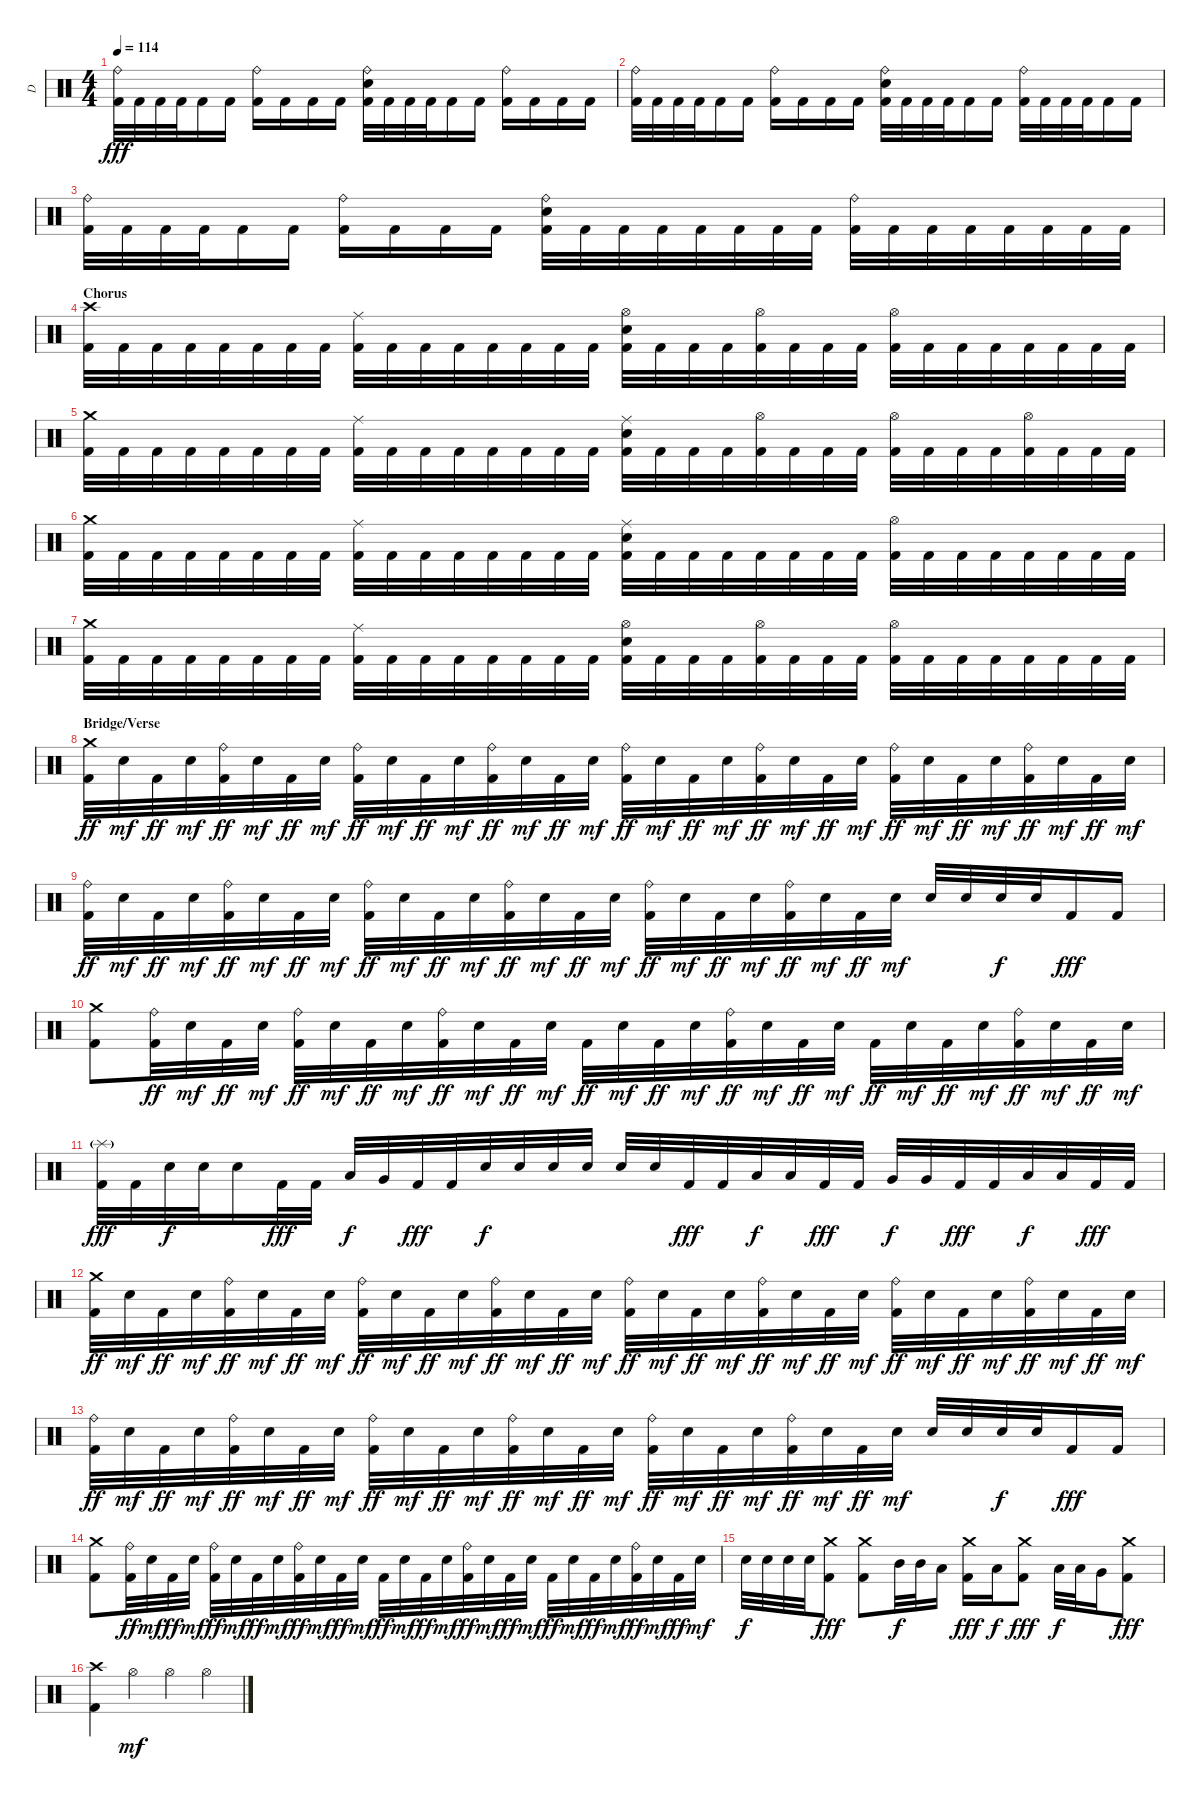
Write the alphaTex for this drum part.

\track ("D" "D") {instrument percussion}
\staff {score}
\articulation defaults
\ts (4 4)
\tempo 114
\clef neutral
\ks c
("Ride (bell)" "Kick (hit) 2").32{dy fff} "Kick (hit) 2".32 "Kick (hit) 2".32 "Kick (hit) 2".32 "Kick (hit) 2".16 "Kick (hit) 2".16 ("Ride (bell)" "Kick (hit) 2").16 "Kick (hit) 2".16 "Kick (hit) 2".16 "Kick (hit) 2".16 ("Ride (bell)" "Electric Snare (hit)" "Kick (hit) 2").32 "Kick (hit) 2".32 "Kick (hit) 2".32 "Kick (hit) 2".32 "Kick (hit) 2".16 "Kick (hit) 2".16 ("Ride (bell)" "Kick (hit) 2").16 "Kick (hit) 2".16 "Kick (hit) 2".16 "Kick (hit) 2".16 |
("Ride (bell)" "Kick (hit) 2").32 "Kick (hit) 2".32 "Kick (hit) 2".32 "Kick (hit) 2".32 "Kick (hit) 2".16 "Kick (hit) 2".16 ("Ride (bell)" "Kick (hit) 2").16 "Kick (hit) 2".16 "Kick (hit) 2".16 "Kick (hit) 2".16 ("Ride (bell)" "Electric Snare (hit)" "Kick (hit) 2").32 "Kick (hit) 2".32 "Kick (hit) 2".32 "Kick (hit) 2".32 "Kick (hit) 2".16 "Kick (hit) 2".16 ("Ride (bell)" "Kick (hit) 2").32 "Kick (hit) 2".32 "Kick (hit) 2".32 "Kick (hit) 2".32 "Kick (hit) 2".16 "Kick (hit) 2".16 |
("Ride (bell)" "Kick (hit) 2").32 "Kick (hit) 2".32 "Kick (hit) 2".32 "Kick (hit) 2".32 "Kick (hit) 2".16 "Kick (hit) 2".16 ("Ride (bell)" "Kick (hit) 2").16 "Kick (hit) 2".16 "Kick (hit) 2".16 "Kick (hit) 2".16 ("Ride (bell)" "Electric Snare (hit)" "Kick (hit) 2").32 "Kick (hit) 2".32 "Kick (hit) 2".32 "Kick (hit) 2".32 "Kick (hit) 2".32 "Kick (hit) 2".32 "Kick (hit) 2".32 "Kick (hit) 2".32 ("Ride (bell)" "Kick (hit) 2").32 "Kick (hit) 2".32 "Kick (hit) 2".32 "Kick (hit) 2".32 "Kick (hit) 2".32 "Kick (hit) 2".32 "Kick (hit) 2".32 "Kick (hit) 2".32 |
\section ("" "Chorus")
("Crash high (hit)" "Kick (hit) 2").32 "Kick (hit) 2".32 "Kick (hit) 2".32 "Kick (hit) 2".32 "Kick (hit) 2".32 "Kick (hit) 2".32 "Kick (hit) 2".32 "Kick (hit) 2".32 ("Ride (middle)" "Kick (hit) 2").32 "Kick (hit) 2".32 "Kick (hit) 2".32 "Kick (hit) 2".32 "Kick (hit) 2".32 "Kick (hit) 2".32 "Kick (hit) 2".32 "Kick (hit) 2".32 ("Hi-Hat (open)" "Electric Snare (hit)" "Kick (hit) 2").32 "Kick (hit) 2".32 "Kick (hit) 2".32 "Kick (hit) 2".32 ("Hi-Hat (open)" "Kick (hit) 2").32 "Kick (hit) 2".32 "Kick (hit) 2".32 "Kick (hit) 2".32 ("Hi-Hat (open)" "Kick (hit) 2").32 "Kick (hit) 2".32 "Kick (hit) 2".32 "Kick (hit) 2".32 "Kick (hit) 2".32 "Kick (hit) 2".32 "Kick (hit) 2".32 "Kick (hit) 2".32 |
("Crash medium (hit)" "Kick (hit) 2").32 "Kick (hit) 2".32 "Kick (hit) 2".32 "Kick (hit) 2".32 "Kick (hit) 2".32 "Kick (hit) 2".32 "Kick (hit) 2".32 "Kick (hit) 2".32 ("Ride (middle)" "Kick (hit) 2").32 "Kick (hit) 2".32 "Kick (hit) 2".32 "Kick (hit) 2".32 "Kick (hit) 2".32 "Kick (hit) 2".32 "Kick (hit) 2".32 "Kick (hit) 2".32 ("Ride (middle)" "Electric Snare (hit)" "Kick (hit) 2").32 "Kick (hit) 2".32 "Kick (hit) 2".32 "Kick (hit) 2".32 ("Hi-Hat (open)" "Kick (hit) 2").32 "Kick (hit) 2".32 "Kick (hit) 2".32 "Kick (hit) 2".32 ("Hi-Hat (open)" "Kick (hit) 2").32 "Kick (hit) 2".32 "Kick (hit) 2".32 "Kick (hit) 2".32 ("Hi-Hat (open)" "Kick (hit) 2").32 "Kick (hit) 2".32 "Kick (hit) 2".32 "Kick (hit) 2".32 |
("Crash medium (hit)" "Kick (hit) 2").32 "Kick (hit) 2".32 "Kick (hit) 2".32 "Kick (hit) 2".32 "Kick (hit) 2".32 "Kick (hit) 2".32 "Kick (hit) 2".32 "Kick (hit) 2".32 ("Ride (middle)" "Kick (hit) 2").32 "Kick (hit) 2".32 "Kick (hit) 2".32 "Kick (hit) 2".32 "Kick (hit) 2".32 "Kick (hit) 2".32 "Kick (hit) 2".32 "Kick (hit) 2".32 ("Ride (middle)" "Electric Snare (hit)" "Kick (hit) 2").32 "Kick (hit) 2".32 "Kick (hit) 2".32 "Kick (hit) 2".32 "Kick (hit) 2".32 "Kick (hit) 2".32 "Kick (hit) 2".32 "Kick (hit) 2".32 ("Hi-Hat (open)" "Kick (hit) 2").32 "Kick (hit) 2".32 "Kick (hit) 2".32 "Kick (hit) 2".32 "Kick (hit) 2".32 "Kick (hit) 2".32 "Kick (hit) 2".32 "Kick (hit) 2".32 |
("Crash medium (hit)" "Kick (hit) 2").32 "Kick (hit) 2".32 "Kick (hit) 2".32 "Kick (hit) 2".32 "Kick (hit) 2".32 "Kick (hit) 2".32 "Kick (hit) 2".32 "Kick (hit) 2".32 ("Ride (middle)" "Kick (hit) 2").32 "Kick (hit) 2".32 "Kick (hit) 2".32 "Kick (hit) 2".32 "Kick (hit) 2".32 "Kick (hit) 2".32 "Kick (hit) 2".32 "Kick (hit) 2".32 ("Hi-Hat (open)" "Electric Snare (hit)" "Kick (hit) 2").32 "Kick (hit) 2".32 "Kick (hit) 2".32 "Kick (hit) 2".32 ("Hi-Hat (open)" "Kick (hit) 2").32 "Kick (hit) 2".32 "Kick (hit) 2".32 "Kick (hit) 2".32 ("Hi-Hat (open)" "Kick (hit) 2").32 "Kick (hit) 2".32 "Kick (hit) 2".32 "Kick (hit) 2".32 "Kick (hit) 2".32 "Kick (hit) 2".32 "Kick (hit) 2".32 "Kick (hit) 2".32 |
\section ("" "Bridge/Verse")
("Crash medium (hit)" "Kick (hit) 2").32{dy ff} "Electric Snare (hit)".32{dy mf} "Kick (hit) 2".32{dy ff} "Electric Snare (hit)".32{dy mf} ("Ride (bell)" "Kick (hit) 2").32{dy ff} "Electric Snare (hit)".32{dy mf} "Kick (hit) 2".32{dy ff} "Electric Snare (hit)".32{dy mf} ("Ride (bell)" "Kick (hit) 2").32{dy ff} "Electric Snare (hit)".32{dy mf} "Kick (hit) 2".32{dy ff} "Electric Snare (hit)".32{dy mf} ("Ride (bell)" "Kick (hit) 2").32{dy ff} "Electric Snare (hit)".32{dy mf} "Kick (hit) 2".32{dy ff} "Electric Snare (hit)".32{dy mf} ("Ride (bell)" "Kick (hit) 2").32{dy ff} "Electric Snare (hit)".32{dy mf} "Kick (hit) 2".32{dy ff} "Electric Snare (hit)".32{dy mf} ("Ride (bell)" "Kick (hit) 2").32{dy ff} "Electric Snare (hit)".32{dy mf} "Kick (hit) 2".32{dy ff} "Electric Snare (hit)".32{dy mf} ("Ride (bell)" "Kick (hit) 2").32{dy ff} "Electric Snare (hit)".32{dy mf} "Kick (hit) 2".32{dy ff} "Electric Snare (hit)".32{dy mf} ("Ride (bell)" "Kick (hit) 2").32{dy ff} "Electric Snare (hit)".32{dy mf} "Kick (hit) 2".32{dy ff} "Electric Snare (hit)".32{dy mf} |
("Ride (bell)" "Kick (hit) 2").32{dy ff} "Electric Snare (hit)".32{dy mf} "Kick (hit) 2".32{dy ff} "Electric Snare (hit)".32{dy mf} ("Ride (bell)" "Kick (hit) 2").32{dy ff} "Electric Snare (hit)".32{dy mf} "Kick (hit) 2".32{dy ff} "Electric Snare (hit)".32{dy mf} ("Ride (bell)" "Kick (hit) 2").32{dy ff} "Electric Snare (hit)".32{dy mf} "Kick (hit) 2".32{dy ff} "Electric Snare (hit)".32{dy mf} ("Ride (bell)" "Kick (hit) 2").32{dy ff} "Electric Snare (hit)".32{dy mf} "Kick (hit) 2".32{dy ff} "Electric Snare (hit)".32{dy mf} ("Ride (bell)" "Kick (hit) 2").32{dy ff} "Electric Snare (hit)".32{dy mf} "Kick (hit) 2".32{dy ff} "Electric Snare (hit)".32{dy mf} ("Ride (bell)" "Kick (hit) 2").32{dy ff} "Electric Snare (hit)".32{dy mf} "Kick (hit) 2".32{dy ff} "Electric Snare (hit)".32{dy mf} "Electric Snare (hit)".32 "Electric Snare (hit)".32 "Electric Snare (hit)".32{dy f} "Electric Snare (hit)".32 "Kick (hit) 2".16{dy fff} "Kick (hit) 2".16 |
("Crash medium (hit)" "Kick (hit) 2").8 ("Ride (bell)" "Kick (hit) 2").32{dy ff} "Electric Snare (hit)".32{dy mf} "Kick (hit) 2".32{dy ff} "Electric Snare (hit)".32{dy mf} ("Ride (bell)" "Kick (hit) 2").32{dy ff} "Electric Snare (hit)".32{dy mf} "Kick (hit) 2".32{dy ff} "Electric Snare (hit)".32{dy mf} ("Ride (bell)" "Kick (hit) 2").32{dy ff} "Electric Snare (hit)".32{dy mf} "Kick (hit) 2".32{dy ff} "Electric Snare (hit)".32{dy mf} "Kick (hit) 2".32{dy ff} "Electric Snare (hit)".32{dy mf} "Kick (hit) 2".32{dy ff} "Electric Snare (hit)".32{dy mf} ("Ride (bell)" "Kick (hit) 2").32{dy ff} "Electric Snare (hit)".32{dy mf} "Kick (hit) 2".32{dy ff} "Electric Snare (hit)".32{dy mf} "Kick (hit) 2".32{dy ff} "Electric Snare (hit)".32{dy mf} "Kick (hit) 2".32{dy ff} "Electric Snare (hit)".32{dy mf} ("Ride (bell)" "Kick (hit) 2").32{dy ff} "Electric Snare (hit)".32{dy mf} "Kick (hit) 2".32{dy ff} "Electric Snare (hit)".32{dy mf} |
("Splash (hit)"{g} "Kick (hit) 2").32{dy fff} "Kick (hit) 2".32 "Electric Snare (hit)".32{dy f} "Electric Snare (hit)".32 "Electric Snare (hit)".16 "Kick (hit) 2".32{dy fff} "Kick (hit) 2".32 "Low Tom (hit)".32{dy f} "Very Low Tom (hit)".32 "Kick (hit) 2".32{dy fff} "Kick (hit) 2".32 "Electric Snare (hit)".32{dy f} "Electric Snare (hit)".32 "Electric Snare (hit)".32 "Electric Snare (hit)".32 "Electric Snare (hit)".32 "Electric Snare (hit)".32 "Kick (hit) 2".32{dy fff} "Kick (hit) 2".32 "Low Tom (hit)".32{dy f} "Low Tom (hit)".32 "Kick (hit) 2".32{dy fff} "Kick (hit) 2".32 "Very Low Tom (hit)".32{dy f} "Very Low Tom (hit)".32 "Kick (hit) 2".32{dy fff} "Kick (hit) 2".32 "Low Floor Tom (hit)".32{dy f} "Low Floor Tom (hit)".32 "Kick (hit) 2".32{dy fff} "Kick (hit) 2".32 |
("Crash medium (hit)" "Kick (hit) 2").32{dy ff} "Electric Snare (hit)".32{dy mf} "Kick (hit) 2".32{dy ff} "Electric Snare (hit)".32{dy mf} ("Ride (bell)" "Kick (hit) 2").32{dy ff} "Electric Snare (hit)".32{dy mf} "Kick (hit) 2".32{dy ff} "Electric Snare (hit)".32{dy mf} ("Ride (bell)" "Kick (hit) 2").32{dy ff} "Electric Snare (hit)".32{dy mf} "Kick (hit) 2".32{dy ff} "Electric Snare (hit)".32{dy mf} ("Ride (bell)" "Kick (hit) 2").32{dy ff} "Electric Snare (hit)".32{dy mf} "Kick (hit) 2".32{dy ff} "Electric Snare (hit)".32{dy mf} ("Ride (bell)" "Kick (hit) 2").32{dy ff} "Electric Snare (hit)".32{dy mf} "Kick (hit) 2".32{dy ff} "Electric Snare (hit)".32{dy mf} ("Ride (bell)" "Kick (hit) 2").32{dy ff} "Electric Snare (hit)".32{dy mf} "Kick (hit) 2".32{dy ff} "Electric Snare (hit)".32{dy mf} ("Ride (bell)" "Kick (hit) 2").32{dy ff} "Electric Snare (hit)".32{dy mf} "Kick (hit) 2".32{dy ff} "Electric Snare (hit)".32{dy mf} ("Ride (bell)" "Kick (hit) 2").32{dy ff} "Electric Snare (hit)".32{dy mf} "Kick (hit) 2".32{dy ff} "Electric Snare (hit)".32{dy mf} |
("Ride (bell)" "Kick (hit) 2").32{dy ff} "Electric Snare (hit)".32{dy mf} "Kick (hit) 2".32{dy ff} "Electric Snare (hit)".32{dy mf} ("Ride (bell)" "Kick (hit) 2").32{dy ff} "Electric Snare (hit)".32{dy mf} "Kick (hit) 2".32{dy ff} "Electric Snare (hit)".32{dy mf} ("Ride (bell)" "Kick (hit) 2").32{dy ff} "Electric Snare (hit)".32{dy mf} "Kick (hit) 2".32{dy ff} "Electric Snare (hit)".32{dy mf} ("Ride (bell)" "Kick (hit) 2").32{dy ff} "Electric Snare (hit)".32{dy mf} "Kick (hit) 2".32{dy ff} "Electric Snare (hit)".32{dy mf} ("Ride (bell)" "Kick (hit) 2").32{dy ff} "Electric Snare (hit)".32{dy mf} "Kick (hit) 2".32{dy ff} "Electric Snare (hit)".32{dy mf} ("Ride (bell)" "Kick (hit) 2").32{dy ff} "Electric Snare (hit)".32{dy mf} "Kick (hit) 2".32{dy ff} "Electric Snare (hit)".32{dy mf} "Electric Snare (hit)".32 "Electric Snare (hit)".32 "Electric Snare (hit)".32{dy f} "Electric Snare (hit)".32 "Kick (hit) 2".16{dy fff} "Kick (hit) 2".16 |
("Crash medium (hit)" "Kick (hit) 2").8 ("Ride (bell)" "Kick (hit) 2").32{dy ff} "Electric Snare (hit)".32{dy mf} "Kick (hit) 2".32{dy ff} "Electric Snare (hit)".32{dy mf} ("Ride (bell)" "Kick (hit) 2").32{dy ff} "Electric Snare (hit)".32{dy mf} "Kick (hit) 2".32{dy ff} "Electric Snare (hit)".32{dy mf} ("Ride (bell)" "Kick (hit) 2").32{dy ff} "Electric Snare (hit)".32{dy mf} "Kick (hit) 2".32{dy ff} "Electric Snare (hit)".32{dy mf} "Kick (hit) 2".32{dy ff} "Electric Snare (hit)".32{dy mf} "Kick (hit) 2".32{dy ff} "Electric Snare (hit)".32{dy mf} ("Ride (bell)" "Kick (hit) 2").32{dy ff} "Electric Snare (hit)".32{dy mf} "Kick (hit) 2".32{dy ff} "Electric Snare (hit)".32{dy mf} "Kick (hit) 2".32{dy ff} "Electric Snare (hit)".32{dy mf} "Kick (hit) 2".32{dy ff} "Electric Snare (hit)".32{dy mf} ("Ride (bell)" "Kick (hit) 2").32{dy ff} "Electric Snare (hit)".32{dy mf} "Kick (hit) 2".32{dy ff} "Electric Snare (hit)".32{dy mf} |
"Electric Snare (hit)".32{dy f} "Electric Snare (hit)".32 "Electric Snare (hit)".32 "Electric Snare (hit)".32 ("Crash medium (hit)" "Kick (hit) 2").8{dy fff} ("Crash medium (hit)" "Kick (hit) 2").8 "Mid Tom (hit)".32{dy f} "Mid Tom (hit)".32 "Low Tom (hit)".16 ("Crash medium (hit)" "Kick (hit) 2").16{dy fff} "Low Tom (hit)".16{dy f} ("Crash medium (hit)" "Kick (hit) 2").8{dy fff} "Low Tom (hit)".32{dy f} "Low Tom (hit)".32 "Very Low Tom (hit)".16 ("Crash medium (hit)" "Kick (hit) 2").8{dy fff} |
("Crash high (hit)" "Kick (hit) 2").4 "Hi-Hat (open)".4{dy mf} "Hi-Hat (open)".4 "Hi-Hat (open)".4
